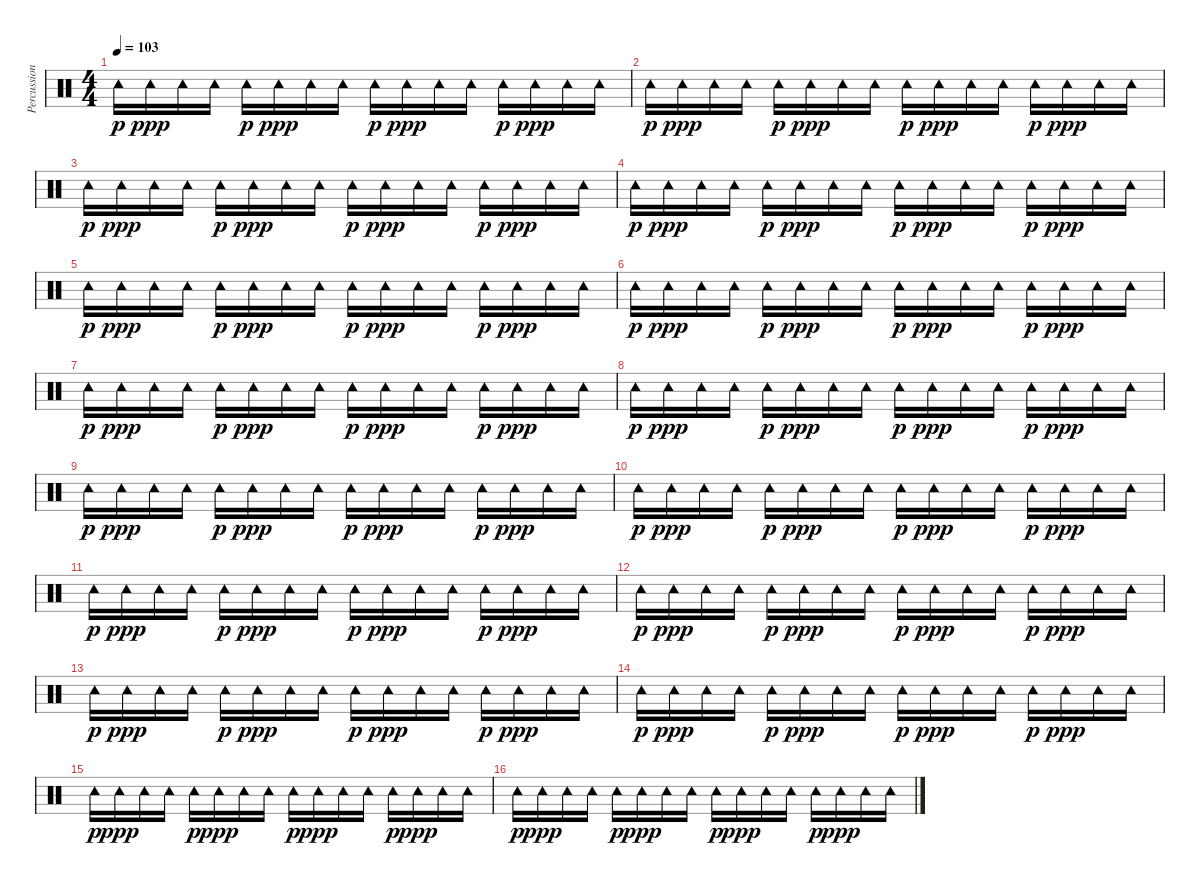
\track ("Percussions 2" "Percussion") {instrument percussion}
\staff {score}
\articulation defaults
\ts (4 4)
\tempo 103
\clef neutral
\ks c "Tambourine (hit)".16{dy p} "Tambourine (hit)".16{dy ppp} "Tambourine (hit)".16 "Tambourine (hit)".16 "Tambourine (hit)".16{dy p} "Tambourine (hit)".16{dy ppp} "Tambourine (hit)".16 "Tambourine (hit)".16 "Tambourine (hit)".16{dy p} "Tambourine (hit)".16{dy ppp} "Tambourine (hit)".16 "Tambourine (hit)".16 "Tambourine (hit)".16{dy p} "Tambourine (hit)".16{dy ppp} "Tambourine (hit)".16 "Tambourine (hit)".16
|
"Tambourine (hit)".16{dy p} "Tambourine (hit)".16{dy ppp} "Tambourine (hit)".16 "Tambourine (hit)".16 "Tambourine (hit)".16{dy p} "Tambourine (hit)".16{dy ppp} "Tambourine (hit)".16 "Tambourine (hit)".16 "Tambourine (hit)".16{dy p} "Tambourine (hit)".16{dy ppp} "Tambourine (hit)".16 "Tambourine (hit)".16 "Tambourine (hit)".16{dy p} "Tambourine (hit)".16{dy ppp} "Tambourine (hit)".16 "Tambourine (hit)".16 |
"Tambourine (hit)".16{dy p} "Tambourine (hit)".16{dy ppp} "Tambourine (hit)".16 "Tambourine (hit)".16 "Tambourine (hit)".16{dy p} "Tambourine (hit)".16{dy ppp} "Tambourine (hit)".16 "Tambourine (hit)".16 "Tambourine (hit)".16{dy p} "Tambourine (hit)".16{dy ppp} "Tambourine (hit)".16 "Tambourine (hit)".16 "Tambourine (hit)".16{dy p} "Tambourine (hit)".16{dy ppp} "Tambourine (hit)".16 "Tambourine (hit)".16 |
"Tambourine (hit)".16{dy p} "Tambourine (hit)".16{dy ppp} "Tambourine (hit)".16 "Tambourine (hit)".16 "Tambourine (hit)".16{dy p} "Tambourine (hit)".16{dy ppp} "Tambourine (hit)".16 "Tambourine (hit)".16 "Tambourine (hit)".16{dy p} "Tambourine (hit)".16{dy ppp} "Tambourine (hit)".16 "Tambourine (hit)".16 "Tambourine (hit)".16{dy p} "Tambourine (hit)".16{dy ppp} "Tambourine (hit)".16 "Tambourine (hit)".16 |
"Tambourine (hit)".16{dy p} "Tambourine (hit)".16{dy ppp} "Tambourine (hit)".16 "Tambourine (hit)".16 "Tambourine (hit)".16{dy p} "Tambourine (hit)".16{dy ppp} "Tambourine (hit)".16 "Tambourine (hit)".16 "Tambourine (hit)".16{dy p} "Tambourine (hit)".16{dy ppp} "Tambourine (hit)".16 "Tambourine (hit)".16 "Tambourine (hit)".16{dy p} "Tambourine (hit)".16{dy ppp} "Tambourine (hit)".16 "Tambourine (hit)".16 |
"Tambourine (hit)".16{dy p} "Tambourine (hit)".16{dy ppp} "Tambourine (hit)".16 "Tambourine (hit)".16 "Tambourine (hit)".16{dy p} "Tambourine (hit)".16{dy ppp} "Tambourine (hit)".16 "Tambourine (hit)".16 "Tambourine (hit)".16{dy p} "Tambourine (hit)".16{dy ppp} "Tambourine (hit)".16 "Tambourine (hit)".16 "Tambourine (hit)".16{dy p} "Tambourine (hit)".16{dy ppp} "Tambourine (hit)".16 "Tambourine (hit)".16 |
"Tambourine (hit)".16{dy p} "Tambourine (hit)".16{dy ppp} "Tambourine (hit)".16 "Tambourine (hit)".16 "Tambourine (hit)".16{dy p} "Tambourine (hit)".16{dy ppp} "Tambourine (hit)".16 "Tambourine (hit)".16 "Tambourine (hit)".16{dy p} "Tambourine (hit)".16{dy ppp} "Tambourine (hit)".16 "Tambourine (hit)".16 "Tambourine (hit)".16{dy p} "Tambourine (hit)".16{dy ppp} "Tambourine (hit)".16 "Tambourine (hit)".16 |
"Tambourine (hit)".16{dy p} "Tambourine (hit)".16{dy ppp} "Tambourine (hit)".16 "Tambourine (hit)".16 "Tambourine (hit)".16{dy p} "Tambourine (hit)".16{dy ppp} "Tambourine (hit)".16 "Tambourine (hit)".16 "Tambourine (hit)".16{dy p} "Tambourine (hit)".16{dy ppp} "Tambourine (hit)".16 "Tambourine (hit)".16 "Tambourine (hit)".16{dy p} "Tambourine (hit)".16{dy ppp} "Tambourine (hit)".16 "Tambourine (hit)".16 |
"Tambourine (hit)".16{dy p} "Tambourine (hit)".16{dy ppp} "Tambourine (hit)".16 "Tambourine (hit)".16 "Tambourine (hit)".16{dy p} "Tambourine (hit)".16{dy ppp} "Tambourine (hit)".16 "Tambourine (hit)".16 "Tambourine (hit)".16{dy p} "Tambourine (hit)".16{dy ppp} "Tambourine (hit)".16 "Tambourine (hit)".16 "Tambourine (hit)".16{dy p} "Tambourine (hit)".16{dy ppp} "Tambourine (hit)".16 "Tambourine (hit)".16 |
"Tambourine (hit)".16{dy p} "Tambourine (hit)".16{dy ppp} "Tambourine (hit)".16 "Tambourine (hit)".16 "Tambourine (hit)".16{dy p} "Tambourine (hit)".16{dy ppp} "Tambourine (hit)".16 "Tambourine (hit)".16 "Tambourine (hit)".16{dy p} "Tambourine (hit)".16{dy ppp} "Tambourine (hit)".16 "Tambourine (hit)".16 "Tambourine (hit)".16{dy p} "Tambourine (hit)".16{dy ppp} "Tambourine (hit)".16 "Tambourine (hit)".16 |
"Tambourine (hit)".16{dy p} "Tambourine (hit)".16{dy ppp} "Tambourine (hit)".16 "Tambourine (hit)".16 "Tambourine (hit)".16{dy p} "Tambourine (hit)".16{dy ppp} "Tambourine (hit)".16 "Tambourine (hit)".16 "Tambourine (hit)".16{dy p} "Tambourine (hit)".16{dy ppp} "Tambourine (hit)".16 "Tambourine (hit)".16 "Tambourine (hit)".16{dy p} "Tambourine (hit)".16{dy ppp} "Tambourine (hit)".16 "Tambourine (hit)".16 |
"Tambourine (hit)".16{dy p} "Tambourine (hit)".16{dy ppp} "Tambourine (hit)".16 "Tambourine (hit)".16 "Tambourine (hit)".16{dy p} "Tambourine (hit)".16{dy ppp} "Tambourine (hit)".16 "Tambourine (hit)".16 "Tambourine (hit)".16{dy p} "Tambourine (hit)".16{dy ppp} "Tambourine (hit)".16 "Tambourine (hit)".16 "Tambourine (hit)".16{dy p} "Tambourine (hit)".16{dy ppp} "Tambourine (hit)".16 "Tambourine (hit)".16 |
"Tambourine (hit)".16{dy p} "Tambourine (hit)".16{dy ppp} "Tambourine (hit)".16 "Tambourine (hit)".16 "Tambourine (hit)".16{dy p} "Tambourine (hit)".16{dy ppp} "Tambourine (hit)".16 "Tambourine (hit)".16 "Tambourine (hit)".16{dy p} "Tambourine (hit)".16{dy ppp} "Tambourine (hit)".16 "Tambourine (hit)".16 "Tambourine (hit)".16{dy p} "Tambourine (hit)".16{dy ppp} "Tambourine (hit)".16 "Tambourine (hit)".16 |
"Tambourine (hit)".16{dy p} "Tambourine (hit)".16{dy ppp} "Tambourine (hit)".16 "Tambourine (hit)".16 "Tambourine (hit)".16{dy p} "Tambourine (hit)".16{dy ppp} "Tambourine (hit)".16 "Tambourine (hit)".16 "Tambourine (hit)".16{dy p} "Tambourine (hit)".16{dy ppp} "Tambourine (hit)".16 "Tambourine (hit)".16 "Tambourine (hit)".16{dy p} "Tambourine (hit)".16{dy ppp} "Tambourine (hit)".16 "Tambourine (hit)".16 |
"Tambourine (hit)".16{dy p} "Tambourine (hit)".16{dy ppp} "Tambourine (hit)".16 "Tambourine (hit)".16 "Tambourine (hit)".16{dy p} "Tambourine (hit)".16{dy ppp} "Tambourine (hit)".16 "Tambourine (hit)".16 "Tambourine (hit)".16{dy p} "Tambourine (hit)".16{dy ppp} "Tambourine (hit)".16 "Tambourine (hit)".16 "Tambourine (hit)".16{dy p} "Tambourine (hit)".16{dy ppp} "Tambourine (hit)".16 "Tambourine (hit)".16 |
"Tambourine (hit)".16{dy p} "Tambourine (hit)".16{dy ppp} "Tambourine (hit)".16 "Tambourine (hit)".16 "Tambourine (hit)".16{dy p} "Tambourine (hit)".16{dy ppp} "Tambourine (hit)".16 "Tambourine (hit)".16 "Tambourine (hit)".16{dy p} "Tambourine (hit)".16{dy ppp} "Tambourine (hit)".16 "Tambourine (hit)".16 "Tambourine (hit)".16{dy p} "Tambourine (hit)".16{dy ppp} "Tambourine (hit)".16 "Tambourine (hit)".16
